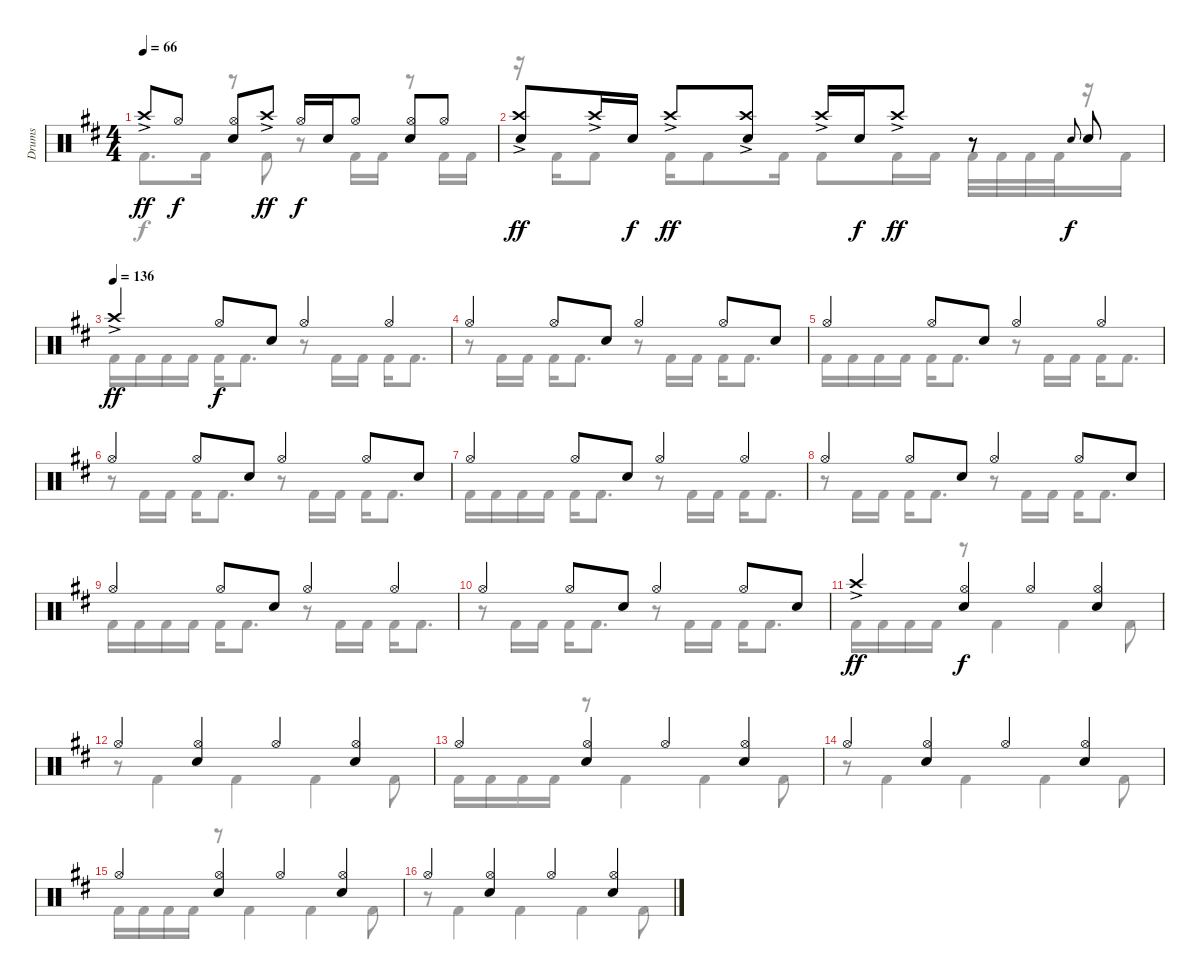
\track ("Drums" "Drums") {instrument percussion}
\staff {score}
\articulation defaults
\voice
\ts (4 4)
\tempo 66
\clef neutral
\ks d "Crash high (hit)"{ac}.8{dy ff} "Hi-Hat (open)".8{dy f}
("Hi-Hat (open)" "Electric Snare (hit)").8 "Crash high (hit)"{ac}.8{dy ff} "Hi-Hat (open)".16{dy f} "Electric Snare (hit)".16 "Hi-Hat (open)".8 ("Hi-Hat (open)" "Electric Snare (hit)").8 "Hi-Hat (open)".8 |
("Crash high (hit)"{ac} "Electric Snare (hit)").8{dy ff} "Crash high (hit)"{ac}.16 "Electric Snare (hit)".16{dy f} "Crash high (hit)"{ac}.8{dy ff} ("Crash high (hit)"{ac} "Electric Snare (hit)").8 "Crash high (hit)"{ac}.16 "Electric Snare (hit)".16{dy f} "Crash high (hit)"{ac}.8{dy ff} r.8 "Electric Snare (hit)".8{gr onbeat dy f} "Electric Snare (hit)".8 |
\tempo (136)
"Crash high (hit)"{ac}.4{dy ff} "Hi-Hat (open)".8{dy f} "Electric Snare (hit)".8 "Hi-Hat (open)".4 "Hi-Hat (open)".4 |
"Hi-Hat (open)".4 "Hi-Hat (open)".8 "Electric Snare (hit)".8 "Hi-Hat (open)".4 "Hi-Hat (open)".8 "Electric Snare (hit)".8 |
"Hi-Hat (open)".4 "Hi-Hat (open)".8 "Electric Snare (hit)".8 "Hi-Hat (open)".4 "Hi-Hat (open)".4 |
"Hi-Hat (open)".4 "Hi-Hat (open)".8 "Electric Snare (hit)".8 "Hi-Hat (open)".4 "Hi-Hat (open)".8 "Electric Snare (hit)".8 |
"Hi-Hat (open)".4 "Hi-Hat (open)".8 "Electric Snare (hit)".8 "Hi-Hat (open)".4 "Hi-Hat (open)".4 |
"Hi-Hat (open)".4 "Hi-Hat (open)".8 "Electric Snare (hit)".8 "Hi-Hat (open)".4 "Hi-Hat (open)".8 "Electric Snare (hit)".8 |
"Hi-Hat (open)".4 "Hi-Hat (open)".8 "Electric Snare (hit)".8 "Hi-Hat (open)".4 "Hi-Hat (open)".4 |
"Hi-Hat (open)".4 "Hi-Hat (open)".8 "Electric Snare (hit)".8 "Hi-Hat (open)".4 "Hi-Hat (open)".8 "Electric Snare (hit)".8 |
"Crash high (hit)"{ac}.4{dy ff} ("Hi-Hat (open)" "Electric Snare (hit)").4{dy f} "Hi-Hat (open)".4 ("Hi-Hat (open)" "Electric Snare (hit)").4 |
"Hi-Hat (open)".4 ("Hi-Hat (open)" "Electric Snare (hit)").4 "Hi-Hat (open)".4 ("Hi-Hat (open)" "Electric Snare (hit)").4 |
"Hi-Hat (open)".4 ("Hi-Hat (open)" "Electric Snare (hit)").4 "Hi-Hat (open)".4 ("Hi-Hat (open)" "Electric Snare (hit)").4 |
"Hi-Hat (open)".4 ("Hi-Hat (open)" "Electric Snare (hit)").4 "Hi-Hat (open)".4 ("Hi-Hat (open)" "Electric Snare (hit)").4 |
"Hi-Hat (open)".4 ("Hi-Hat (open)" "Electric Snare (hit)").4 "Hi-Hat (open)".4 ("Hi-Hat (open)" "Electric Snare (hit)").4 |
"Hi-Hat (open)".4 ("Hi-Hat (open)" "Electric Snare (hit)").4 "Hi-Hat (open)".4 ("Hi-Hat (open)" "Electric Snare (hit)").4
\voice
\clef neutral
\ottava regular
\simile none
\ks d "Kick (hit) 2".8{d dy f} "Kick (hit) 2".16
r.8 "Kick (hit) 2".8 r.8 "Kick (hit) 2".16 "Kick (hit) 2".16 r.8 "Kick (hit) 2".16 "Kick (hit) 2".16 |
r.16 "Kick (hit) 2".16 "Kick (hit) 2".8 "Kick (hit) 2".16 "Kick (hit) 2".8 "Kick (hit) 2".16 "Kick (hit) 2".8 "Kick (hit) 2".16 "Kick (hit) 2".16 "Kick (hit) 2".32 "Kick (hit) 2".32 "Kick (hit) 2".32 "Kick (hit) 2".32 r.16 "Kick (hit) 2".16 |
"Kick (hit) 2".16 "Kick (hit) 2".16 "Kick (hit) 2".16 "Kick (hit) 2".16 "Kick (hit) 2".16 "Kick (hit) 2".8{d} r.8 "Kick (hit) 2".16 "Kick (hit) 2".16 "Kick (hit) 2".16 "Kick (hit) 2".8{d} |
r.8 "Kick (hit) 2".16 "Kick (hit) 2".16 "Kick (hit) 2".16 "Kick (hit) 2".8{d} r.8 "Kick (hit) 2".16 "Kick (hit) 2".16 "Kick (hit) 2".16 "Kick (hit) 2".8{d} |
"Kick (hit) 2".16 "Kick (hit) 2".16 "Kick (hit) 2".16 "Kick (hit) 2".16 "Kick (hit) 2".16 "Kick (hit) 2".8{d} r.8 "Kick (hit) 2".16 "Kick (hit) 2".16 "Kick (hit) 2".16 "Kick (hit) 2".8{d} |
r.8 "Kick (hit) 2".16 "Kick (hit) 2".16 "Kick (hit) 2".16 "Kick (hit) 2".8{d} r.8 "Kick (hit) 2".16 "Kick (hit) 2".16 "Kick (hit) 2".16 "Kick (hit) 2".8{d} |
"Kick (hit) 2".16 "Kick (hit) 2".16 "Kick (hit) 2".16 "Kick (hit) 2".16 "Kick (hit) 2".16 "Kick (hit) 2".8{d} r.8 "Kick (hit) 2".16 "Kick (hit) 2".16 "Kick (hit) 2".16 "Kick (hit) 2".8{d} |
r.8 "Kick (hit) 2".16 "Kick (hit) 2".16 "Kick (hit) 2".16 "Kick (hit) 2".8{d} r.8 "Kick (hit) 2".16 "Kick (hit) 2".16 "Kick (hit) 2".16 "Kick (hit) 2".8{d} |
"Kick (hit) 2".16 "Kick (hit) 2".16 "Kick (hit) 2".16 "Kick (hit) 2".16 "Kick (hit) 2".16 "Kick (hit) 2".8{d} r.8 "Kick (hit) 2".16 "Kick (hit) 2".16 "Kick (hit) 2".16 "Kick (hit) 2".8{d} |
r.8 "Kick (hit) 2".16 "Kick (hit) 2".16 "Kick (hit) 2".16 "Kick (hit) 2".8{d} r.8 "Kick (hit) 2".16 "Kick (hit) 2".16 "Kick (hit) 2".16 "Kick (hit) 2".8{d} |
"Kick (hit) 2".16 "Kick (hit) 2".16 "Kick (hit) 2".16 "Kick (hit) 2".16 r.8 "Kick (hit) 2".4 "Kick (hit) 2".4 "Kick (hit) 2".8 |
r.8 "Kick (hit) 2".4 "Kick (hit) 2".4 "Kick (hit) 2".4 "Kick (hit) 2".8 |
"Kick (hit) 2".16 "Kick (hit) 2".16 "Kick (hit) 2".16 "Kick (hit) 2".16 r.8 "Kick (hit) 2".4 "Kick (hit) 2".4 "Kick (hit) 2".8 |
r.8 "Kick (hit) 2".4 "Kick (hit) 2".4 "Kick (hit) 2".4 "Kick (hit) 2".8 |
"Kick (hit) 2".16 "Kick (hit) 2".16 "Kick (hit) 2".16 "Kick (hit) 2".16 r.8 "Kick (hit) 2".4 "Kick (hit) 2".4 "Kick (hit) 2".8 |
r.8 "Kick (hit) 2".4 "Kick (hit) 2".4 "Kick (hit) 2".4 "Kick (hit) 2".8
